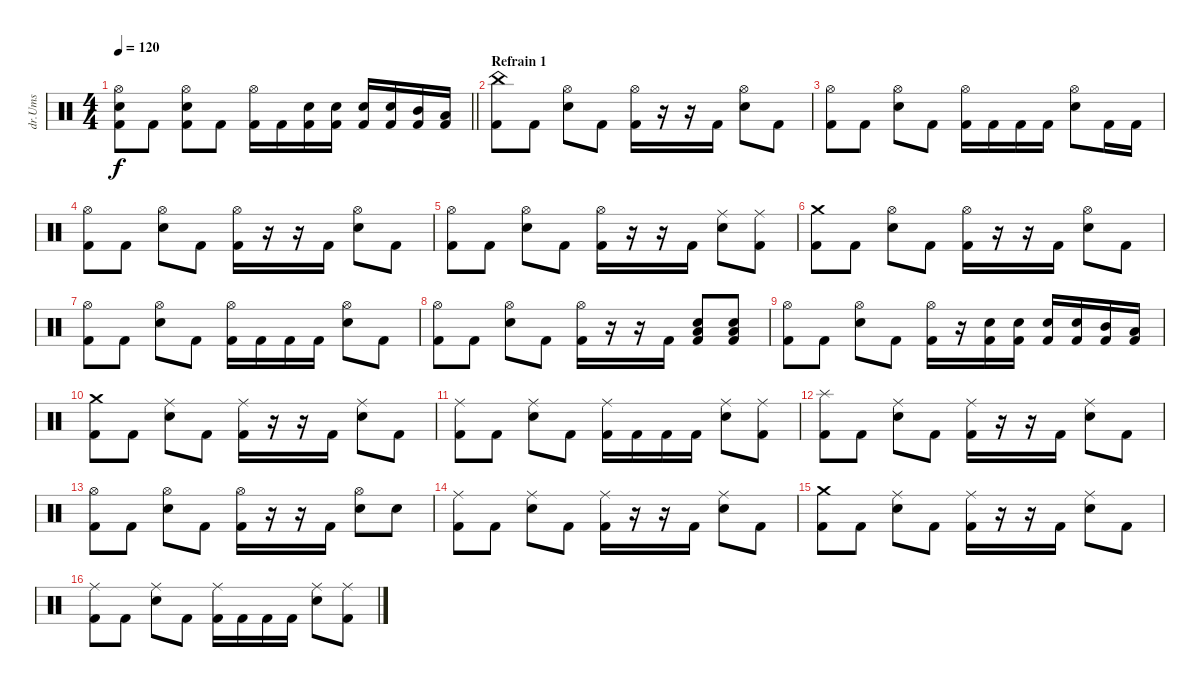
\track ("dr.Ums" "dr.Ums") {instrument percussion}
\staff {score}
\articulation defaults
\ts (4 4)
\tempo 120
\clef neutral
\barLineRight lightlight
\ks c
("Kick (hit) 2" "Snare (hit) 2" "Hi-Hat (open)").8{dy f} "Kick (hit) 2".8 ("Kick (hit) 2" "Snare (hit) 2" "Hi-Hat (open)").8 "Kick (hit) 2".8 ("Kick (hit) 2" "Hi-Hat (open)").16 "Kick (hit) 2".16 ("Snare (hit) 2" "Kick (hit) 2").16 ("Snare (hit) 2" "Kick (hit) 2").16 ("Snare (hit) 2" "Kick (hit) 2").16 ("Snare (hit) 2" "Kick (hit) 2").16 ("Mid Tom (hit)" "Kick (hit) 2").16 ("Low Tom (hit)" "Kick (hit) 2").16 |
\section ("" "Refrain 1")
("Kick (hit) 2" "China (hit)").8 "Kick (hit) 2".8 ("Snare (hit) 2" "Hi-Hat (open)").8 "Kick (hit) 2".8 ("Kick (hit) 2" "Hi-Hat (open)").16 r.16 r.16 "Kick (hit) 2".16 ("Snare (hit) 2" "Hi-Hat (open)").8 "Kick (hit) 2".8 |
("Kick (hit) 2" "Hi-Hat (open)").8 "Kick (hit) 2".8 ("Snare (hit) 2" "Hi-Hat (open)").8 "Kick (hit) 2".8 ("Kick (hit) 2" "Hi-Hat (open)").16 "Kick (hit) 2".16 "Kick (hit) 2".16 "Kick (hit) 2".16 ("Snare (hit) 2" "Hi-Hat (open)").8 "Kick (hit) 2".16 "Kick (hit) 2".16 |
("Kick (hit) 2" "Hi-Hat (open)").8 "Kick (hit) 2".8 ("Snare (hit) 2" "Hi-Hat (open)").8 "Kick (hit) 2".8 ("Kick (hit) 2" "Hi-Hat (open)").16 r.16 r.16 "Kick (hit) 2".16 ("Snare (hit) 2" "Hi-Hat (open)").8 "Kick (hit) 2".8 |
("Kick (hit) 2" "Hi-Hat (open)").8 "Kick (hit) 2".8 ("Snare (hit) 2" "Hi-Hat (open)").8 "Kick (hit) 2".8 ("Kick (hit) 2" "Hi-Hat (open)").16 r.16 r.16 "Kick (hit) 2".16 ("Snare (hit) 2" "Ride (middle)").8 ("Kick (hit) 2" "Ride (middle)").8 |
("Kick (hit) 2" "Crash medium (hit)").8 "Kick (hit) 2".8 ("Snare (hit) 2" "Hi-Hat (open)").8 "Kick (hit) 2".8 ("Kick (hit) 2" "Hi-Hat (open)").16 r.16 r.16 "Kick (hit) 2".16 ("Snare (hit) 2" "Hi-Hat (open)").8 "Kick (hit) 2".8 |
("Kick (hit) 2" "Hi-Hat (open)").8 "Kick (hit) 2".8 ("Snare (hit) 2" "Hi-Hat (open)").8 "Kick (hit) 2".8 ("Kick (hit) 2" "Hi-Hat (open)").16 "Kick (hit) 2".16 "Kick (hit) 2".16 "Kick (hit) 2".16 ("Snare (hit) 2" "Hi-Hat (open)").8 "Kick (hit) 2".8 |
("Kick (hit) 2" "Hi-Hat (open)").8 "Kick (hit) 2".8 ("Snare (hit) 2" "Hi-Hat (open)").8 "Kick (hit) 2".8 ("Kick (hit) 2" "Hi-Hat (open)").16 r.16 r.16 "Kick (hit) 2".16 ("Kick (hit) 2" "Low Tom (hit)" "Snare (hit) 2").8 ("Kick (hit) 2" "Low Tom (hit)" "Snare (hit) 2").8 |
("Kick (hit) 2" "Hi-Hat (open)").8 "Kick (hit) 2".8 ("Snare (hit) 2" "Hi-Hat (open)").8 "Kick (hit) 2".8 ("Kick (hit) 2" "Hi-Hat (open)").16 r.16 ("Snare (hit) 2" "Kick (hit) 2").16 ("Snare (hit) 2" "Kick (hit) 2").16 ("Snare (hit) 2" "Kick (hit) 2").16 ("Snare (hit) 2" "Kick (hit) 2").16 ("Mid Tom (hit)" "Kick (hit) 2").16 ("Low Tom (hit)" "Kick (hit) 2").16 |
("Kick (hit) 2" "Crash medium (hit)").8 "Kick (hit) 2".8 ("Snare (hit) 2" "Ride (middle)").8 "Kick (hit) 2".8 ("Kick (hit) 2" "Ride (middle)").16 r.16 r.16 "Kick (hit) 2".16 ("Snare (hit) 2" "Ride (middle)").8 "Kick (hit) 2".8 |
("Kick (hit) 2" "Ride (middle)").8 "Kick (hit) 2".8 ("Snare (hit) 2" "Ride (middle)").8 "Kick (hit) 2".8 ("Kick (hit) 2" "Ride (middle)").16 "Kick (hit) 2".16 "Kick (hit) 2".16 "Kick (hit) 2".16 ("Snare (hit) 2" "Ride (middle)").8 ("Kick (hit) 2" "Ride (middle)").8 |
("Kick (hit) 2" "Splash (hit)").8 "Kick (hit) 2".8 ("Snare (hit) 2" "Ride (middle)").8 "Kick (hit) 2".8 ("Kick (hit) 2" "Ride (middle)").16 r.16 r.16 "Kick (hit) 2".16 ("Snare (hit) 2" "Ride (middle)").8 "Kick (hit) 2".8 |
("Kick (hit) 2" "Hi-Hat (open)").8 "Kick (hit) 2".8 ("Snare (hit) 2" "Hi-Hat (open)").8 "Kick (hit) 2".8 ("Kick (hit) 2" "Hi-Hat (open)").16 r.16 r.16 "Kick (hit) 2".16 ("Snare (hit) 2" "Hi-Hat (open)").8 "Snare (hit) 2".8 |
("Kick (hit) 2" "Ride (middle)").8 "Kick (hit) 2".8 ("Snare (hit) 2" "Ride (middle)").8 "Kick (hit) 2".8 ("Kick (hit) 2" "Ride (middle)").16 r.16 r.16 "Kick (hit) 2".16 ("Snare (hit) 2" "Ride (middle)").8 "Kick (hit) 2".8 |
("Kick (hit) 2" "Crash medium (hit)").8 "Kick (hit) 2".8 ("Snare (hit) 2" "Ride (middle)").8 "Kick (hit) 2".8 ("Kick (hit) 2" "Ride (middle)").16 r.16 r.16 "Kick (hit) 2".16 ("Snare (hit) 2" "Ride (middle)").8 "Kick (hit) 2".8 |
("Kick (hit) 2" "Ride (middle)").8 "Kick (hit) 2".8 ("Snare (hit) 2" "Ride (middle)").8 "Kick (hit) 2".8 ("Kick (hit) 2" "Ride (middle)").16 "Kick (hit) 2".16 "Kick (hit) 2".16 "Kick (hit) 2".16 ("Snare (hit) 2" "Ride (middle)").8 ("Kick (hit) 2" "Ride (middle)").8
